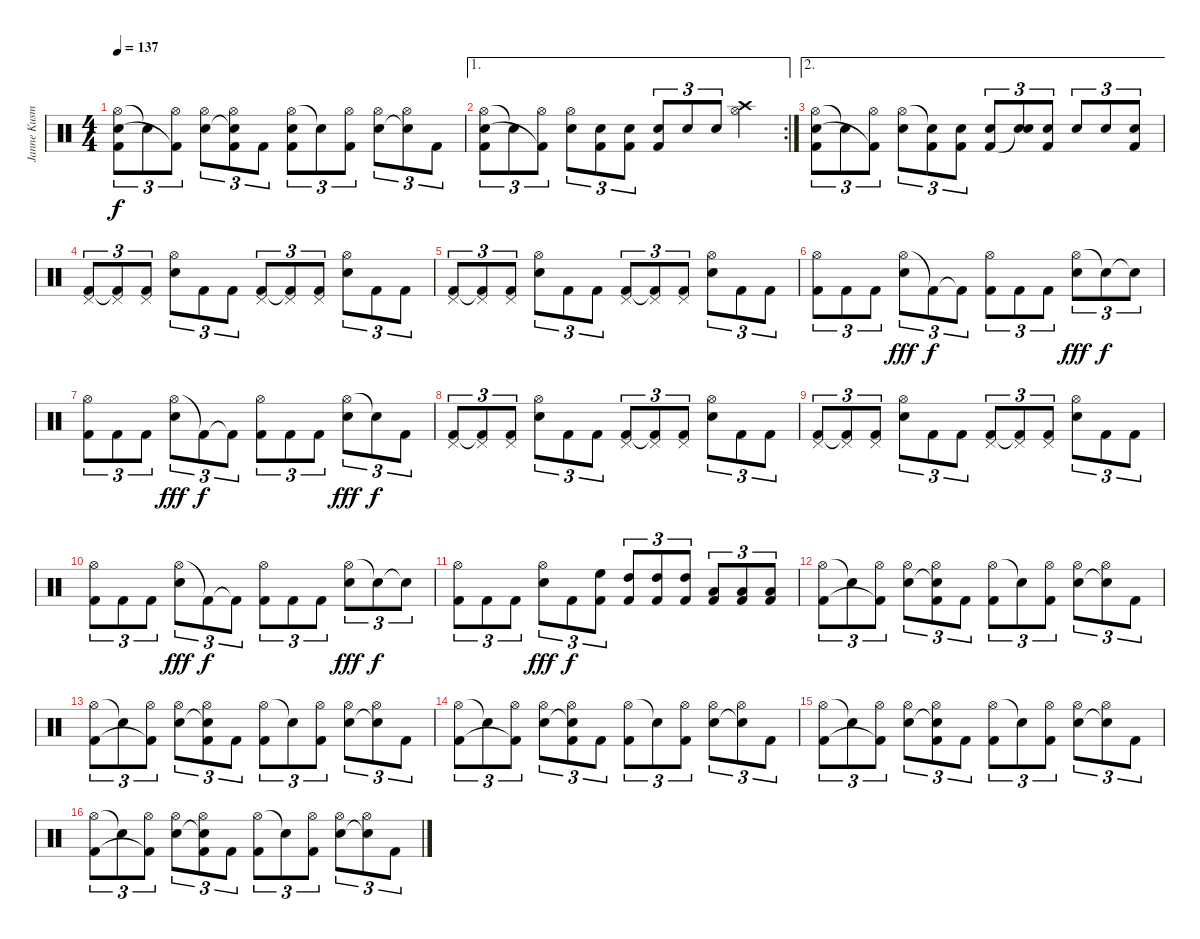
\track ("Janne Kusmin" "Janne Kusm") {instrument percussion}
\staff {score}
\articulation defaults
\ts (4 4)
\tempo 137
\clef neutral
\ks c
("Hi-Hat (open)" "Electric Snare (hit)" "Kick (hit) 2").8{tu (3 2) dy f} "Snare (hit)"{t}.8{tu (3 2)} ("Hi-Hat (open)" "Kick (hit) 2"{t}).8{tu (3 2)} ("Hi-Hat (open)" "Electric Snare (hit)").8{tu (3 2)} ("Hi-Hat (open)" "Snare (hit)"{t} "Kick (hit) 2").8{tu (3 2)} "Kick (hit) 2".8{tu (3 2)} ("Hi-Hat (open)" "Electric Snare (hit)" "Kick (hit) 2").8{tu (3 2)} "Snare (hit)"{t}.8{tu (3 2)} ("Hi-Hat (open)" "Kick (hit) 2").8{tu (3 2)} ("Hi-Hat (open)" "Electric Snare (hit)").8{tu (3 2)} ("Hi-Hat (open)" "Snare (hit)"{t}).8{tu (3 2)} "Kick (hit) 2".8{tu (3 2)} |
\ae 1
\rc 2
("Hi-Hat (open)" "Electric Snare (hit)" "Kick (hit) 2").8{tu (3 2)} "Snare (hit)"{t}.8{tu (3 2)} ("Hi-Hat (open)" "Kick (hit) 2"{t}).8{tu (3 2)} ("Hi-Hat (open)" "Electric Snare (hit)").8{tu (3 2)} ("Electric Snare (hit)" "Kick (hit) 2").8{tu (3 2)} ("Electric Snare (hit)" "Kick (hit) 2").8{tu (3 2)} ("Snare (hit) 2" "Kick (hit) 2").8{tu (3 2)} "Snare (hit) 2".8{tu (3 2)} "Snare (hit) 2".8{tu (3 2)} ("Hi-Hat (open)" "Crash high (hit)").4 |
\ae 2
("Hi-Hat (open)" "Electric Snare (hit)" "Kick (hit) 2").8{tu (3 2)} "Snare (hit)"{t}.8{tu (3 2)} ("Hi-Hat (open)" "Kick (hit) 2"{t}).8{tu (3 2)} ("Hi-Hat (open)" "Electric Snare (hit)").8{tu (3 2)} ("Snare (hit)"{t} "Kick (hit) 2").8{tu (3 2)} ("Electric Snare (hit)" "Kick (hit) 2").8{tu (3 2)} ("Electric Snare (hit)" "Kick (hit) 2").8{tu (3 2)} ("Electric Snare (hit)" "Snare (hit)"{t}).8{tu (3 2)} ("Electric Snare (hit)" "Kick (hit) 2").8{tu (3 2)} "Electric Snare (hit)".8{tu (3 2)} "Electric Snare (hit)".8{tu (3 2)} ("Electric Snare (hit)" "Kick (hit) 2").8{tu (3 2)} |
("Pedal Hi-Hat (hit)" "Kick (hit) 2").8{tu (3 2)} ("Pedal Hi-Hat (hit)" "Kick (hit) 2"{t}).8{tu (3 2)} ("Pedal Hi-Hat (hit)" "Kick (hit) 2").8{tu (3 2)} ("Hi-Hat (open)" "Electric Snare (hit)").8{tu (3 2)} "Kick (hit) 2".8{tu (3 2)} "Kick (hit) 2".8{tu (3 2)} ("Pedal Hi-Hat (hit)" "Kick (hit) 2").8{tu (3 2)} ("Pedal Hi-Hat (hit)" "Kick (hit) 2"{t}).8{tu (3 2)} ("Pedal Hi-Hat (hit)" "Kick (hit) 2").8{tu (3 2)} ("Hi-Hat (open)" "Electric Snare (hit)").8{tu (3 2)} "Kick (hit) 2".8{tu (3 2)} "Kick (hit) 2".8{tu (3 2)} |
("Pedal Hi-Hat (hit)" "Kick (hit) 2").8{tu (3 2)} ("Pedal Hi-Hat (hit)" "Kick (hit) 2"{t}).8{tu (3 2)} ("Pedal Hi-Hat (hit)" "Kick (hit) 2").8{tu (3 2)} ("Hi-Hat (open)" "Electric Snare (hit)").8{tu (3 2)} "Kick (hit) 2".8{tu (3 2)} "Kick (hit) 2".8{tu (3 2)} ("Pedal Hi-Hat (hit)" "Kick (hit) 2").8{tu (3 2)} ("Pedal Hi-Hat (hit)" "Kick (hit) 2"{t}).8{tu (3 2)} ("Pedal Hi-Hat (hit)" "Kick (hit) 2").8{tu (3 2)} ("Hi-Hat (open)" "Electric Snare (hit)").8{tu (3 2)} "Kick (hit) 2".8{tu (3 2)} "Kick (hit) 2".8{tu (3 2)} |
("Hi-Hat (open)" "Kick (hit) 2").8{tu (3 2)} "Kick (hit) 2".8{tu (3 2)} "Kick (hit) 2".8{tu (3 2)} ("Hi-Hat (open)" "Snare (hit) 2").8{tu (3 2) dy fff} "Kick (hit) 2"{t}.8{tu (3 2) dy f} "Kick (hit) 2"{t}.8{tu (3 2)} ("Hi-Hat (open)" "Kick (hit) 2").8{tu (3 2)} "Kick (hit) 2".8{tu (3 2)} "Kick (hit) 2".8{tu (3 2)} ("Hi-Hat (open)" "Snare (hit) 2").8{tu (3 2) dy fff} "Snare (hit)"{t}.8{tu (3 2) dy f} "Snare (hit)"{t}.8{tu (3 2)} |
("Hi-Hat (open)" "Kick (hit) 2").8{tu (3 2)} "Kick (hit) 2".8{tu (3 2)} "Kick (hit) 2".8{tu (3 2)} ("Hi-Hat (open)" "Snare (hit) 2").8{tu (3 2) dy fff} "Kick (hit) 2"{t}.8{tu (3 2) dy f} "Kick (hit) 2"{t}.8{tu (3 2)} ("Hi-Hat (open)" "Kick (hit) 2").8{tu (3 2)} "Kick (hit) 2".8{tu (3 2)} "Kick (hit) 2".8{tu (3 2)} ("Hi-Hat (open)" "Snare (hit) 2").8{tu (3 2) dy fff} "Snare (hit)"{t}.8{tu (3 2) dy f} "Kick (hit) 2".8{tu (3 2)} |
("Pedal Hi-Hat (hit)" "Kick (hit) 2").8{tu (3 2)} ("Pedal Hi-Hat (hit)" "Kick (hit) 2"{t}).8{tu (3 2)} ("Pedal Hi-Hat (hit)" "Kick (hit) 2").8{tu (3 2)} ("Hi-Hat (open)" "Electric Snare (hit)").8{tu (3 2)} "Kick (hit) 2".8{tu (3 2)} "Kick (hit) 2".8{tu (3 2)} ("Pedal Hi-Hat (hit)" "Kick (hit) 2").8{tu (3 2)} ("Pedal Hi-Hat (hit)" "Kick (hit) 2"{t}).8{tu (3 2)} ("Pedal Hi-Hat (hit)" "Kick (hit) 2").8{tu (3 2)} ("Hi-Hat (open)" "Electric Snare (hit)").8{tu (3 2)} "Kick (hit) 2".8{tu (3 2)} "Kick (hit) 2".8{tu (3 2)} |
("Pedal Hi-Hat (hit)" "Kick (hit) 2").8{tu (3 2)} ("Pedal Hi-Hat (hit)" "Kick (hit) 2"{t}).8{tu (3 2)} ("Pedal Hi-Hat (hit)" "Kick (hit) 2").8{tu (3 2)} ("Hi-Hat (open)" "Electric Snare (hit)").8{tu (3 2)} "Kick (hit) 2".8{tu (3 2)} "Kick (hit) 2".8{tu (3 2)} ("Pedal Hi-Hat (hit)" "Kick (hit) 2").8{tu (3 2)} ("Pedal Hi-Hat (hit)" "Kick (hit) 2"{t}).8{tu (3 2)} ("Pedal Hi-Hat (hit)" "Kick (hit) 2").8{tu (3 2)} ("Hi-Hat (open)" "Electric Snare (hit)").8{tu (3 2)} "Kick (hit) 2".8{tu (3 2)} "Kick (hit) 2".8{tu (3 2)} |
("Hi-Hat (open)" "Kick (hit) 2").8{tu (3 2)} "Kick (hit) 2".8{tu (3 2)} "Kick (hit) 2".8{tu (3 2)} ("Hi-Hat (open)" "Snare (hit) 2").8{tu (3 2) dy fff} "Kick (hit) 2"{t}.8{tu (3 2) dy f} "Kick (hit) 2"{t}.8{tu (3 2)} ("Hi-Hat (open)" "Kick (hit) 2").8{tu (3 2)} "Kick (hit) 2".8{tu (3 2)} "Kick (hit) 2".8{tu (3 2)} ("Hi-Hat (open)" "Snare (hit) 2").8{tu (3 2) dy fff} "Snare (hit)"{t}.8{tu (3 2) dy f} "Snare (hit)"{t}.8{tu (3 2)} |
("Hi-Hat (open)" "Kick (hit) 2").8{tu (3 2)} "Kick (hit) 2".8{tu (3 2)} "Kick (hit) 2".8{tu (3 2)} ("Hi-Hat (open)" "Snare (hit) 2").8{tu (3 2) dy fff} "Kick (hit) 2".8{tu (3 2) dy f} ("High Floor Tom (hit)" "Kick (hit) 2").8{tu (3 2)} ("High Tom (hit)" "Kick (hit) 2").8{tu (3 2)} ("High Tom (hit)" "Kick (hit) 2").8{tu (3 2)} ("High Tom (hit)" "Kick (hit) 2").8{tu (3 2)} ("Low Tom (hit)" "Kick (hit) 2").8{tu (3 2)} ("Low Tom (hit)" "Kick (hit) 2").8{tu (3 2)} ("Low Tom (hit)" "Kick (hit) 2").8{tu (3 2)} |
("Hi-Hat (open)" "Kick (hit) 2").8{tu (3 2)} "Snare (hit)"{t}.8{tu (3 2)} ("Hi-Hat (open)" "Kick (hit) 2"{t}).8{tu (3 2)} ("Hi-Hat (open)" "Electric Snare (hit)").8{tu (3 2)} ("Hi-Hat (open)" "Snare (hit)"{t} "Kick (hit) 2").8{tu (3 2)} "Kick (hit) 2".8{tu (3 2)} ("Hi-Hat (open)" "Kick (hit) 2").8{tu (3 2)} "Snare (hit)"{t}.8{tu (3 2)} ("Hi-Hat (open)" "Kick (hit) 2").8{tu (3 2)} ("Hi-Hat (open)" "Electric Snare (hit)").8{tu (3 2)} ("Hi-Hat (open)" "Snare (hit)"{t}).8{tu (3 2)} "Kick (hit) 2".8{tu (3 2)} |
("Hi-Hat (open)" "Kick (hit) 2").8{tu (3 2)} "Snare (hit)"{t}.8{tu (3 2)} ("Hi-Hat (open)" "Kick (hit) 2"{t}).8{tu (3 2)} ("Hi-Hat (open)" "Electric Snare (hit)").8{tu (3 2)} ("Hi-Hat (open)" "Snare (hit)"{t} "Kick (hit) 2").8{tu (3 2)} "Kick (hit) 2".8{tu (3 2)} ("Hi-Hat (open)" "Kick (hit) 2").8{tu (3 2)} "Snare (hit)"{t}.8{tu (3 2)} ("Hi-Hat (open)" "Kick (hit) 2").8{tu (3 2)} ("Hi-Hat (open)" "Electric Snare (hit)").8{tu (3 2)} ("Hi-Hat (open)" "Snare (hit)"{t}).8{tu (3 2)} "Kick (hit) 2".8{tu (3 2)} |
("Hi-Hat (open)" "Kick (hit) 2").8{tu (3 2)} "Snare (hit)"{t}.8{tu (3 2)} ("Hi-Hat (open)" "Kick (hit) 2"{t}).8{tu (3 2)} ("Hi-Hat (open)" "Electric Snare (hit)").8{tu (3 2)} ("Hi-Hat (open)" "Snare (hit)"{t} "Kick (hit) 2").8{tu (3 2)} "Kick (hit) 2".8{tu (3 2)} ("Hi-Hat (open)" "Kick (hit) 2").8{tu (3 2)} "Snare (hit)"{t}.8{tu (3 2)} ("Hi-Hat (open)" "Kick (hit) 2").8{tu (3 2)} ("Hi-Hat (open)" "Electric Snare (hit)").8{tu (3 2)} ("Hi-Hat (open)" "Snare (hit)"{t}).8{tu (3 2)} "Kick (hit) 2".8{tu (3 2)} |
("Hi-Hat (open)" "Kick (hit) 2").8{tu (3 2)} "Snare (hit)"{t}.8{tu (3 2)} ("Hi-Hat (open)" "Kick (hit) 2"{t}).8{tu (3 2)} ("Hi-Hat (open)" "Electric Snare (hit)").8{tu (3 2)} ("Hi-Hat (open)" "Snare (hit)"{t} "Kick (hit) 2").8{tu (3 2)} "Kick (hit) 2".8{tu (3 2)} ("Hi-Hat (open)" "Kick (hit) 2").8{tu (3 2)} "Snare (hit)"{t}.8{tu (3 2)} ("Hi-Hat (open)" "Kick (hit) 2").8{tu (3 2)} ("Hi-Hat (open)" "Electric Snare (hit)").8{tu (3 2)} ("Hi-Hat (open)" "Snare (hit)"{t}).8{tu (3 2)} "Kick (hit) 2".8{tu (3 2)} |
("Hi-Hat (open)" "Kick (hit) 2").8{tu (3 2)} "Snare (hit)"{t}.8{tu (3 2)} ("Hi-Hat (open)" "Kick (hit) 2"{t}).8{tu (3 2)} ("Hi-Hat (open)" "Electric Snare (hit)").8{tu (3 2)} ("Hi-Hat (open)" "Snare (hit)"{t} "Kick (hit) 2").8{tu (3 2)} "Kick (hit) 2".8{tu (3 2)} ("Hi-Hat (open)" "Kick (hit) 2").8{tu (3 2)} "Snare (hit)"{t}.8{tu (3 2)} ("Hi-Hat (open)" "Kick (hit) 2").8{tu (3 2)} ("Hi-Hat (open)" "Electric Snare (hit)").8{tu (3 2)} ("Hi-Hat (open)" "Snare (hit)"{t}).8{tu (3 2)} "Kick (hit) 2".8{tu (3 2)}
